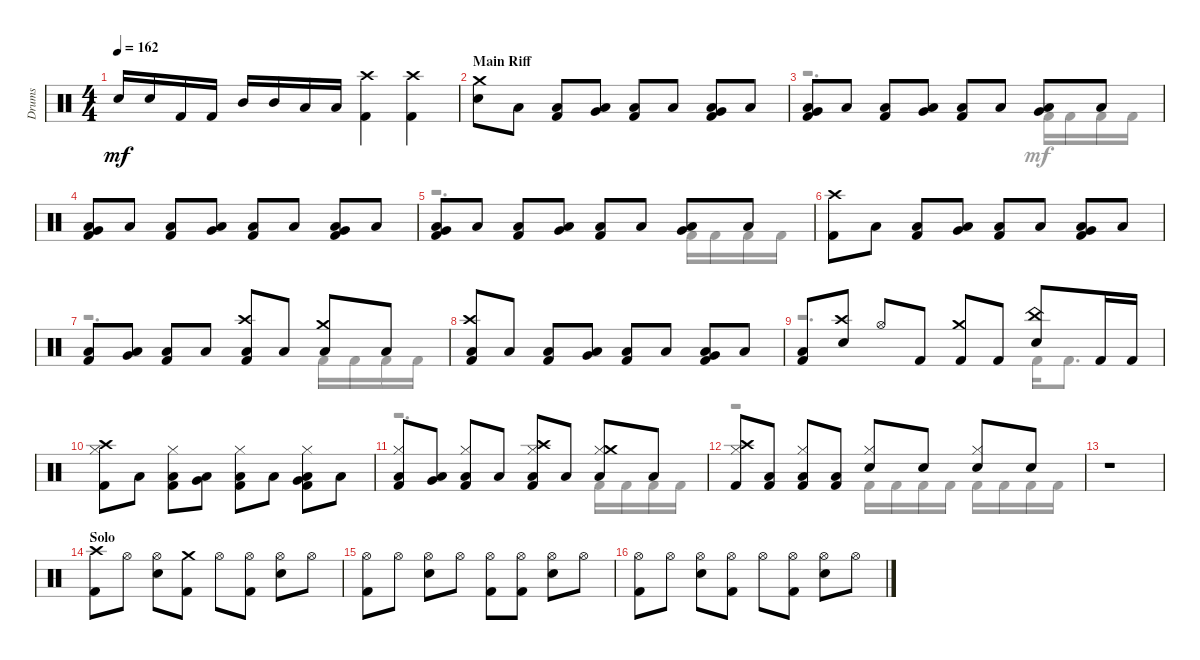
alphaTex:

\track ("Drums" "Drums") {instrument percussion}
\staff {score}
\articulation defaults
\voice
\ts (4 4)
\tempo 162
\clef neutral
\ks aminor "Snare (hit) 2".16{dy mf} "Snare (hit) 2".16 "Kick (hit) 2".16 "Kick (hit) 2".16 "Mid Tom (hit)".16 "Mid Tom (hit)".16 "Low Tom (hit)".16 "Low Tom (hit)".16
("Crash high (hit)" "Kick (hit) 2").4 ("Crash high (hit)" "Kick (hit) 2").4 |
\section ("" "Main Riff")
("Crash medium (hit)" "Snare (hit) 2").8 "Low Floor Tom (hit)".8 ("Kick (hit) 2" "Low Floor Tom (hit)").8 ("Very Low Tom (hit)" "Low Floor Tom (hit)").8 ("Kick (hit) 2" "Low Floor Tom (hit)").8 "Low Floor Tom (hit)".8 ("Low Floor Tom (hit)" "Kick (hit) 2" "Very Low Tom (hit)").8 "Low Floor Tom (hit)".8 |
("Very Low Tom (hit)" "Low Floor Tom (hit)" "Kick (hit) 2").8 "Low Floor Tom (hit)".8 ("Low Floor Tom (hit)" "Kick (hit) 2").8 ("Very Low Tom (hit)" "Low Floor Tom (hit)").8 ("Kick (hit) 2" "Low Floor Tom (hit)").8 "Low Floor Tom (hit)".8 ("Low Floor Tom (hit)" "Very Low Tom (hit)").8 "Low Floor Tom (hit)".8 |
("Kick (hit) 2" "Very Low Tom (hit)" "Low Floor Tom (hit)").8 "Low Floor Tom (hit)".8 ("Low Floor Tom (hit)" "Kick (hit) 2").8 ("Low Floor Tom (hit)" "Very Low Tom (hit)").8 ("Kick (hit) 2" "Low Floor Tom (hit)").8 "Low Floor Tom (hit)".8 ("Low Floor Tom (hit)" "Very Low Tom (hit)" "Kick (hit) 2").8 "Low Floor Tom (hit)".8 |
("Low Floor Tom (hit)" "Kick (hit) 2" "Very Low Tom (hit)").8 "Low Floor Tom (hit)".8 ("Kick (hit) 2" "Low Floor Tom (hit)").8 ("Low Floor Tom (hit)" "Very Low Tom (hit)").8 ("Kick (hit) 2" "Low Floor Tom (hit)").8 "Low Floor Tom (hit)".8 ("Low Floor Tom (hit)" "Very Low Tom (hit)").8 "Low Floor Tom (hit)".8 |
("Crash high (hit)" "Kick (hit) 2").8 "Low Floor Tom (hit)".8 ("Low Floor Tom (hit)" "Kick (hit) 2").8 ("Very Low Tom (hit)" "Low Floor Tom (hit)").8 ("Kick (hit) 2" "Low Floor Tom (hit)").8 "Low Floor Tom (hit)".8 ("Low Floor Tom (hit)" "Kick (hit) 2" "Very Low Tom (hit)").8 "Low Floor Tom (hit)".8 |
("Kick (hit) 2" "Low Floor Tom (hit)").8 ("Low Floor Tom (hit)" "Very Low Tom (hit)").8 ("Low Floor Tom (hit)" "Kick (hit) 2").8 "Low Floor Tom (hit)".8 ("Low Floor Tom (hit)" "Crash high (hit)" "Kick (hit) 2").8 "Low Floor Tom (hit)".8 ("Low Floor Tom (hit)" "Crash medium (hit)").8 "Low Floor Tom (hit)".8 |
("Crash high (hit)" "Low Floor Tom (hit)" "Kick (hit) 2").8 "Low Floor Tom (hit)".8 ("Low Floor Tom (hit)" "Kick (hit) 2").8 ("Very Low Tom (hit)" "Low Floor Tom (hit)").8 ("Kick (hit) 2" "Low Floor Tom (hit)").8 "Low Floor Tom (hit)".8 ("Kick (hit) 2" "Low Floor Tom (hit)" "Very Low Tom (hit)").8 "Low Floor Tom (hit)".8 |
("Low Floor Tom (hit)" "Kick (hit) 2").8 ("Snare (hit) 2" "Crash high (hit)").8 "Hi-Hat (open)".8 "Kick (hit) 2".8 ("Crash medium (hit)" "Kick (hit) 2").8 "Kick (hit) 2".8 ("China (hit)" "Snare (hit) 2").8 "Kick (hit) 2".16 "Kick (hit) 2".16 |
("Kick (hit) 2" "Hi-Hat (closed)" "Crash high (hit)").8 "Low Floor Tom (hit)".8 ("Kick (hit) 2" "Hi-Hat (closed)" "Low Floor Tom (hit)").8 ("Low Floor Tom (hit)" "Very Low Tom (hit)").8 ("Low Floor Tom (hit)" "Kick (hit) 2" "Hi-Hat (closed)").8 "Low Floor Tom (hit)".8 ("Very Low Tom (hit)" "Hi-Hat (closed)" "Low Floor Tom (hit)" "Kick (hit) 2").8 "Low Floor Tom (hit)".8 |
("Hi-Hat (closed)" "Kick (hit) 2" "Low Floor Tom (hit)").8 ("Very Low Tom (hit)" "Low Floor Tom (hit)").8 ("Hi-Hat (closed)" "Kick (hit) 2" "Low Floor Tom (hit)").8 "Low Floor Tom (hit)".8 ("Kick (hit) 2" "Crash high (hit)" "Low Floor Tom (hit)" "Hi-Hat (closed)").8 "Low Floor Tom (hit)".8 ("Hi-Hat (closed)" "Low Floor Tom (hit)" "Crash medium (hit)").8 "Low Floor Tom (hit)".8 |
("Hi-Hat (closed)" "Crash high (hit)" "Kick (hit) 2").8 ("Kick (hit) 2" "Low Floor Tom (hit)").8 ("Hi-Hat (closed)" "Low Floor Tom (hit)" "Kick (hit) 2").8 ("Low Floor Tom (hit)" "Kick (hit) 2").8 ("Hi-Hat (closed)" "Hand Clap (hit)").8 "Hand Clap (hit)".8 ("Hi-Hat (closed)" "Hand Clap (hit)").8 "Hand Clap (hit)".8 |
r.1 |
\section ("" "Solo")
("Kick (hit) 2" "Crash high (hit)").8 "Hi-Hat (open)".8 ("Snare (hit) 2" "Hi-Hat (open)").8 ("Kick (hit) 2" "Crash medium (hit)").8 "Hi-Hat (open)".8 ("Hi-Hat (open)" "Kick (hit) 2").8 ("Hi-Hat (open)" "Snare (hit) 2").8 "Hi-Hat (open)".8 |
("Hi-Hat (open)" "Kick (hit) 2").8 "Hi-Hat (open)".8 ("Snare (hit) 2" "Hi-Hat (open)").8 "Hi-Hat (open)".8 ("Hi-Hat (open)" "Kick (hit) 2").8 ("Hi-Hat (open)" "Kick (hit) 2").8 ("Snare (hit) 2" "Hi-Hat (open)").8 "Hi-Hat (open)".8 |
("Hi-Hat (open)" "Kick (hit) 2").8 "Hi-Hat (open)".8 ("Snare (hit) 2" "Hi-Hat (open)").8 ("Hi-Hat (open)" "Kick (hit) 2").8 "Hi-Hat (open)".8 ("Hi-Hat (open)" "Kick (hit) 2").8 ("Hi-Hat (open)" "Snare (hit) 2").8 "Hi-Hat (open)".8
\voice
\clef neutral
\ottava regular
\simile none
\ks aminor
|
|
r.2{d} "Kick (hit) 2".16 "Kick (hit) 2".16 "Kick (hit) 2".16 "Kick (hit) 2".16 |
|
r.2{d} "Kick (hit) 2".16 "Kick (hit) 2".16 "Kick (hit) 2".16 "Kick (hit) 2".16 |
|
r.2{d} "Kick (hit) 2".16 "Kick (hit) 2".16 "Kick (hit) 2".16 "Kick (hit) 2".16 |
|
r.2{d} "Kick (hit) 2".16 "Kick (hit) 2".8{d} |
|
r.2{d} "Kick (hit) 2".16 "Kick (hit) 2".16 "Kick (hit) 2".16 "Kick (hit) 2".16 |
r.2 "Kick (hit) 2".16 "Kick (hit) 2".16 "Kick (hit) 2".16 "Kick (hit) 2".16 "Kick (hit) 2".16 "Kick (hit) 2".16 "Kick (hit) 2".16 "Kick (hit) 2".16 |
|
|
|
